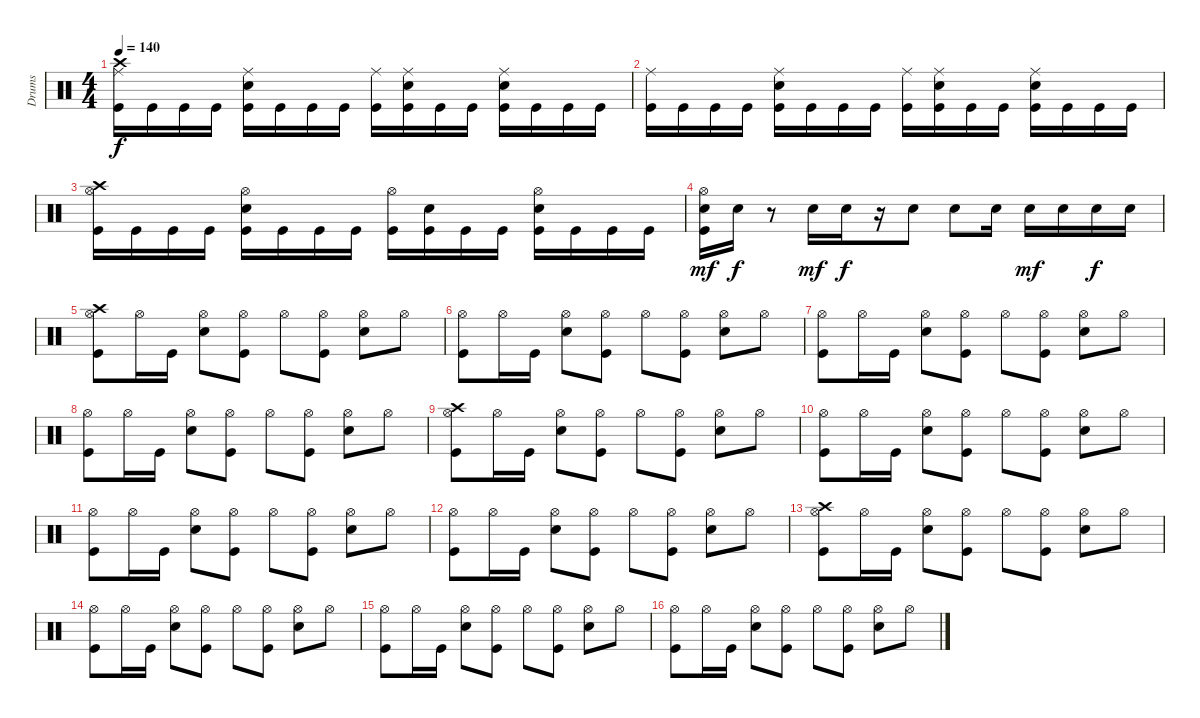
\track ("Drums" "Drums") {instrument percussion}
\staff {score}
\articulation defaults
\ts (4 4)
\tempo 140
\clef neutral
\ks c
("Crash high (hit)" "Ride (middle)" "Kick (hit)").16{dy f} "Kick (hit)".16 "Kick (hit)".16 "Kick (hit)".16 ("Ride (middle)" "Electric Snare (hit)" "Kick (hit)").16 "Kick (hit)".16 "Kick (hit)".16 "Kick (hit)".16 ("Ride (middle)" "Kick (hit)").16 ("Ride (middle)" "Electric Snare (hit)" "Kick (hit)").16 "Kick (hit)".16 "Kick (hit)".16 ("Ride (middle)" "Electric Snare (hit)" "Kick (hit)").16 "Kick (hit)".16 "Kick (hit)".16 "Kick (hit)".16 |
("Ride (middle)" "Kick (hit)").16 "Kick (hit)".16 "Kick (hit)".16 "Kick (hit)".16 ("Ride (middle)" "Electric Snare (hit)" "Kick (hit)").16 "Kick (hit)".16 "Kick (hit)".16 "Kick (hit)".16 ("Ride (middle)" "Kick (hit)").16 ("Ride (middle)" "Electric Snare (hit)" "Kick (hit)").16 "Kick (hit)".16 "Kick (hit)".16 ("Ride (middle)" "Electric Snare (hit)" "Kick (hit)").16 "Kick (hit)".16 "Kick (hit)".16 "Kick (hit)".16 |
("Crash high (hit)" "Hi-Hat (open)" "Kick (hit)").16 "Kick (hit)".16 "Kick (hit)".16 "Kick (hit)".16 ("Hi-Hat (open)" "Electric Snare (hit)" "Kick (hit)").16 "Kick (hit)".16 "Kick (hit)".16 "Kick (hit)".16 ("Hi-Hat (open)" "Kick (hit)").16 ("Electric Snare (hit)" "Kick (hit)").16 "Kick (hit)".16 "Kick (hit)".16 ("Hi-Hat (open)" "Electric Snare (hit)" "Kick (hit)").16 "Kick (hit)".16 "Kick (hit)".16 "Kick (hit)".16 |
("Hi-Hat (open)" "Electric Snare (hit)" "Kick (hit)").16{dy mf} "Electric Snare (hit)".16{dy f} r.8 "Electric Snare (hit)".16{dy mf} "Electric Snare (hit)".16{dy f} r.16 "Electric Snare (hit)".8 "Electric Snare (hit)".8 "Electric Snare (hit)".16 "Electric Snare (hit)".16{dy mf} "Electric Snare (hit)".16 "Electric Snare (hit)".16{dy f} "Electric Snare (hit)".16 |
("Crash high (hit)" "Hi-Hat (open)" "Kick (hit)").8 "Hi-Hat (open)".16 "Kick (hit)".16 ("Hi-Hat (open)" "Electric Snare (hit)").8 ("Hi-Hat (open)" "Kick (hit)").8 "Hi-Hat (open)".8 ("Hi-Hat (open)" "Kick (hit)").8 ("Hi-Hat (open)" "Electric Snare (hit)").8 "Hi-Hat (open)".8 |
("Hi-Hat (open)" "Kick (hit)").8 "Hi-Hat (open)".16 "Kick (hit)".16 ("Hi-Hat (open)" "Electric Snare (hit)").8 ("Hi-Hat (open)" "Kick (hit)").8 "Hi-Hat (open)".8 ("Hi-Hat (open)" "Kick (hit)").8 ("Hi-Hat (open)" "Electric Snare (hit)").8 "Hi-Hat (open)".8 |
("Hi-Hat (open)" "Kick (hit)").8 "Hi-Hat (open)".16 "Kick (hit)".16 ("Hi-Hat (open)" "Electric Snare (hit)").8 ("Hi-Hat (open)" "Kick (hit)").8 "Hi-Hat (open)".8 ("Hi-Hat (open)" "Kick (hit)").8 ("Hi-Hat (open)" "Electric Snare (hit)").8 "Hi-Hat (open)".8 |
("Hi-Hat (open)" "Kick (hit)").8 "Hi-Hat (open)".16 "Kick (hit)".16 ("Hi-Hat (open)" "Electric Snare (hit)").8 ("Hi-Hat (open)" "Kick (hit)").8 "Hi-Hat (open)".8 ("Hi-Hat (open)" "Kick (hit)").8 ("Hi-Hat (open)" "Electric Snare (hit)").8 "Hi-Hat (open)".8 |
("Crash high (hit)" "Hi-Hat (open)" "Kick (hit)").8 "Hi-Hat (open)".16 "Kick (hit)".16 ("Hi-Hat (open)" "Electric Snare (hit)").8 ("Hi-Hat (open)" "Kick (hit)").8 "Hi-Hat (open)".8 ("Hi-Hat (open)" "Kick (hit)").8 ("Hi-Hat (open)" "Electric Snare (hit)").8 "Hi-Hat (open)".8 |
("Hi-Hat (open)" "Kick (hit)").8 "Hi-Hat (open)".16 "Kick (hit)".16 ("Hi-Hat (open)" "Electric Snare (hit)").8 ("Hi-Hat (open)" "Kick (hit)").8 "Hi-Hat (open)".8 ("Hi-Hat (open)" "Kick (hit)").8 ("Hi-Hat (open)" "Electric Snare (hit)").8 "Hi-Hat (open)".8 |
("Hi-Hat (open)" "Kick (hit)").8 "Hi-Hat (open)".16 "Kick (hit)".16 ("Hi-Hat (open)" "Electric Snare (hit)").8 ("Hi-Hat (open)" "Kick (hit)").8 "Hi-Hat (open)".8 ("Hi-Hat (open)" "Kick (hit)").8 ("Hi-Hat (open)" "Electric Snare (hit)").8 "Hi-Hat (open)".8 |
("Hi-Hat (open)" "Kick (hit)").8 "Hi-Hat (open)".16 "Kick (hit)".16 ("Hi-Hat (open)" "Electric Snare (hit)").8 ("Hi-Hat (open)" "Kick (hit)").8 "Hi-Hat (open)".8 ("Hi-Hat (open)" "Kick (hit)").8 ("Hi-Hat (open)" "Electric Snare (hit)").8 "Hi-Hat (open)".8 |
("Crash high (hit)" "Hi-Hat (open)" "Kick (hit)").8 "Hi-Hat (open)".16 "Kick (hit)".16 ("Hi-Hat (open)" "Electric Snare (hit)").8 ("Hi-Hat (open)" "Kick (hit)").8 "Hi-Hat (open)".8 ("Hi-Hat (open)" "Kick (hit)").8 ("Hi-Hat (open)" "Electric Snare (hit)").8 "Hi-Hat (open)".8 |
("Hi-Hat (open)" "Kick (hit)").8 "Hi-Hat (open)".16 "Kick (hit)".16 ("Hi-Hat (open)" "Electric Snare (hit)").8 ("Hi-Hat (open)" "Kick (hit)").8 "Hi-Hat (open)".8 ("Hi-Hat (open)" "Kick (hit)").8 ("Hi-Hat (open)" "Electric Snare (hit)").8 "Hi-Hat (open)".8 |
("Hi-Hat (open)" "Kick (hit)").8 "Hi-Hat (open)".16 "Kick (hit)".16 ("Hi-Hat (open)" "Electric Snare (hit)").8 ("Hi-Hat (open)" "Kick (hit)").8 "Hi-Hat (open)".8 ("Hi-Hat (open)" "Kick (hit)").8 ("Hi-Hat (open)" "Electric Snare (hit)").8 "Hi-Hat (open)".8 |
("Hi-Hat (open)" "Kick (hit)").8 "Hi-Hat (open)".16 "Kick (hit)".16 ("Hi-Hat (open)" "Electric Snare (hit)").8 ("Hi-Hat (open)" "Kick (hit)").8 "Hi-Hat (open)".8 ("Hi-Hat (open)" "Kick (hit)").8 ("Hi-Hat (open)" "Electric Snare (hit)").8 "Hi-Hat (open)".8
